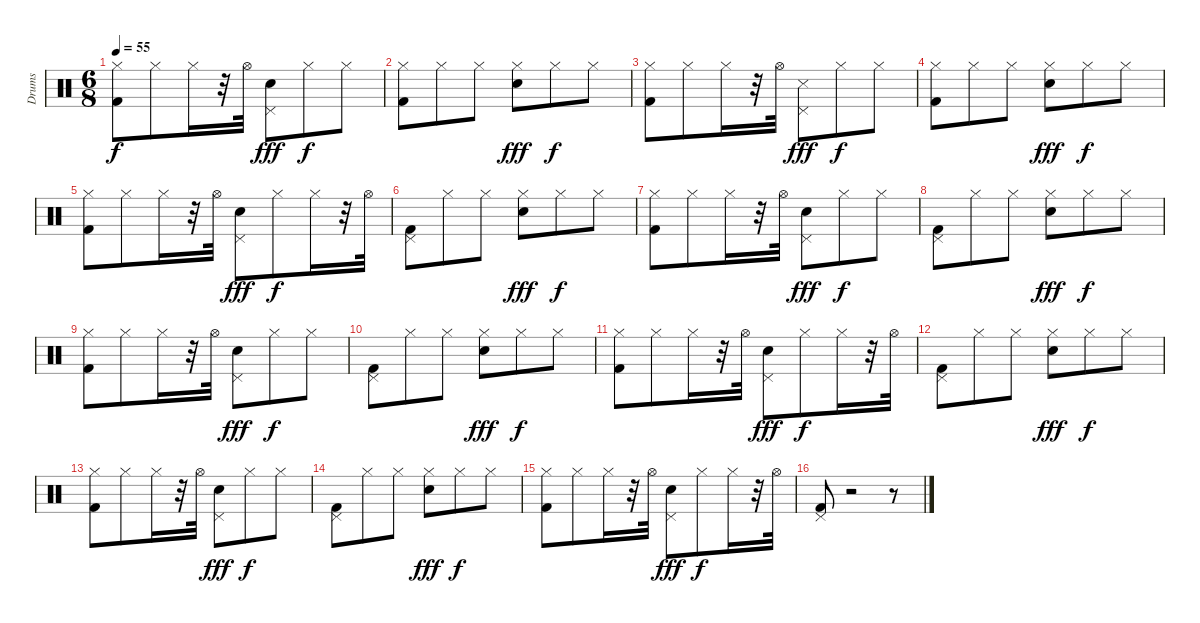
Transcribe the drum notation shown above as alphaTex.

\track ("Drums               " "Drums     ") {instrument percussion}
\staff {score}
\articulation defaults
\ts (6 8)
\tempo 55
\clef neutral
\ks c
("Kick (hit) 2" "Hi-Hat (closed)").8{dy f} "Hi-Hat (closed)".8 "Hi-Hat (closed)".16 r.32 "Hi-Hat (open)".32 ("Snare (hit) 2" "Pedal Hi-Hat (hit)").8{dy fff} "Hi-Hat (closed)".8{dy f} "Hi-Hat (closed)".8 |
("Kick (hit) 2" "Hi-Hat (closed)").8 "Hi-Hat (closed)".8 "Hi-Hat (closed)".8 ("Hi-Hat (closed)" "Snare (hit) 2").8{dy fff} "Hi-Hat (closed)".8{dy f} "Hi-Hat (closed)".8 |
("Kick (hit) 2" "Hi-Hat (closed)").8 "Hi-Hat (closed)".8 "Hi-Hat (closed)".16 r.32 "Hi-Hat (open)".32 ("Pedal Hi-Hat (hit)" "Snare (side stick) 3").8{dy fff} "Hi-Hat (closed)".8{dy f} "Hi-Hat (closed)".8 |
("Hi-Hat (closed)" "Kick (hit) 2").8 "Hi-Hat (closed)".8 "Hi-Hat (closed)".8 ("Hi-Hat (closed)" "Snare (hit) 2").8{dy fff} "Hi-Hat (closed)".8{dy f} "Hi-Hat (closed)".8 |
("Kick (hit) 2" "Hi-Hat (closed)").8 "Hi-Hat (closed)".8 "Hi-Hat (closed)".16 r.32 "Hi-Hat (open)".32 ("Snare (hit) 2" "Pedal Hi-Hat (hit)").8{dy fff} "Hi-Hat (closed)".8{dy f} "Hi-Hat (closed)".16 r.32 "Hi-Hat (open)".32 |
("Pedal Hi-Hat (hit)" "Kick (hit) 2").8 "Hi-Hat (closed)".8 "Hi-Hat (closed)".8 ("Hi-Hat (closed)" "Snare (hit) 2").8{dy fff} "Hi-Hat (closed)".8{dy f} "Hi-Hat (closed)".8 |
("Kick (hit) 2" "Hi-Hat (closed)").8 "Hi-Hat (closed)".8 "Hi-Hat (closed)".16 r.32 "Hi-Hat (open)".32 ("Snare (hit) 2" "Pedal Hi-Hat (hit)").8{dy fff} "Hi-Hat (closed)".8{dy f} "Hi-Hat (closed)".8 |
("Pedal Hi-Hat (hit)" "Kick (hit) 2").8 "Hi-Hat (closed)".8 "Hi-Hat (closed)".8 ("Hi-Hat (closed)" "Snare (hit) 2").8{dy fff} "Hi-Hat (closed)".8{dy f} "Hi-Hat (closed)".8 |
("Kick (hit) 2" "Hi-Hat (closed)").8 "Hi-Hat (closed)".8 "Hi-Hat (closed)".16 r.32 "Hi-Hat (open)".32 ("Snare (hit) 2" "Pedal Hi-Hat (hit)").8{dy fff} "Hi-Hat (closed)".8{dy f} "Hi-Hat (closed)".8 |
("Pedal Hi-Hat (hit)" "Kick (hit) 2").8 "Hi-Hat (closed)".8 "Hi-Hat (closed)".8 ("Hi-Hat (closed)" "Snare (hit) 2").8{dy fff} "Hi-Hat (closed)".8{dy f} "Hi-Hat (closed)".8 |
("Kick (hit) 2" "Hi-Hat (closed)").8 "Hi-Hat (closed)".8 "Hi-Hat (closed)".16 r.32 "Hi-Hat (open)".32 ("Snare (hit) 2" "Pedal Hi-Hat (hit)").8{dy fff} "Hi-Hat (closed)".8{dy f} "Hi-Hat (closed)".16 r.32 "Hi-Hat (open)".32 |
("Pedal Hi-Hat (hit)" "Kick (hit) 2").8 "Hi-Hat (closed)".8 "Hi-Hat (closed)".8 ("Hi-Hat (closed)" "Snare (hit) 2").8{dy fff} "Hi-Hat (closed)".8{dy f} "Hi-Hat (closed)".8 |
("Kick (hit) 2" "Hi-Hat (closed)").8 "Hi-Hat (closed)".8 "Hi-Hat (closed)".16 r.32 "Hi-Hat (open)".32 ("Snare (hit) 2" "Pedal Hi-Hat (hit)").8{dy fff} "Hi-Hat (closed)".8{dy f} "Hi-Hat (closed)".8 |
("Pedal Hi-Hat (hit)" "Kick (hit) 2").8 "Hi-Hat (closed)".8 "Hi-Hat (closed)".8 ("Hi-Hat (closed)" "Snare (hit) 2").8{dy fff} "Hi-Hat (closed)".8{dy f} "Hi-Hat (closed)".8 |
("Kick (hit) 2" "Hi-Hat (closed)").8 "Hi-Hat (closed)".8 "Hi-Hat (closed)".16 r.32 "Hi-Hat (open)".32 ("Snare (hit) 2" "Pedal Hi-Hat (hit)").8{dy fff} "Hi-Hat (closed)".8{dy f} "Hi-Hat (closed)".16 r.32 "Hi-Hat (open)".32 |
("Pedal Hi-Hat (hit)" "Kick (hit) 2").8 r.2 r.8
